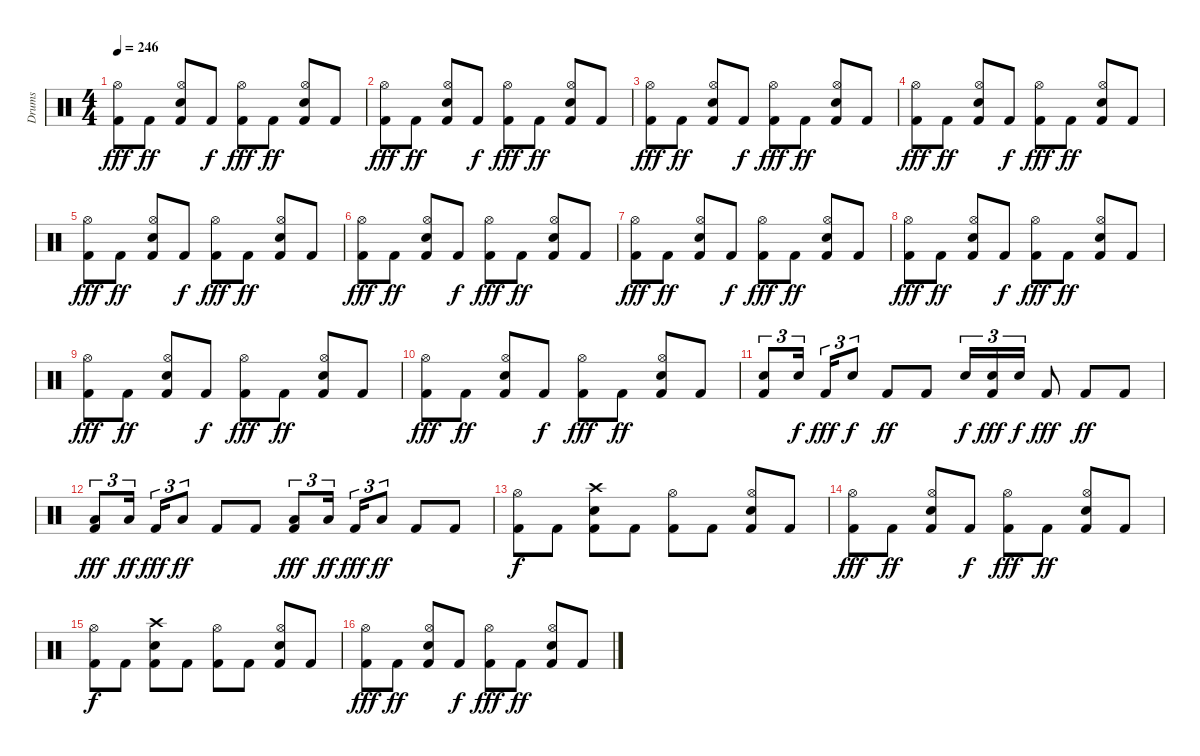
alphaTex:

\track ("Drums" "Drums") {instrument percussion}
\staff {score}
\articulation defaults
\ts (4 4)
\tempo 246
\clef neutral
\ks c
("Kick (hit) 2" "Hi-Hat (open)").8{dy fff volume 12} "Kick (hit) 2".8{dy ff} ("Kick (hit) 2" "Snare (hit) 2" "Hi-Hat (open)").8 "Kick (hit) 2".8{dy f} ("Kick (hit) 2" "Hi-Hat (open)").8{dy fff} "Kick (hit) 2".8{dy ff} ("Kick (hit) 2" "Snare (hit) 2" "Hi-Hat (open)").8 "Kick (hit) 2".8 |
("Kick (hit) 2" "Hi-Hat (open)").8{dy fff volume 12} "Kick (hit) 2".8{dy ff} ("Kick (hit) 2" "Snare (hit) 2" "Hi-Hat (open)").8 "Kick (hit) 2".8{dy f} ("Kick (hit) 2" "Hi-Hat (open)").8{dy fff} "Kick (hit) 2".8{dy ff} ("Kick (hit) 2" "Snare (hit) 2" "Hi-Hat (open)").8 "Kick (hit) 2".8 |
("Kick (hit) 2" "Hi-Hat (open)").8{dy fff volume 12} "Kick (hit) 2".8{dy ff} ("Kick (hit) 2" "Snare (hit) 2" "Hi-Hat (open)").8 "Kick (hit) 2".8{dy f} ("Kick (hit) 2" "Hi-Hat (open)").8{dy fff} "Kick (hit) 2".8{dy ff} ("Kick (hit) 2" "Snare (hit) 2" "Hi-Hat (open)").8 "Kick (hit) 2".8 |
("Kick (hit) 2" "Hi-Hat (open)").8{dy fff volume 12} "Kick (hit) 2".8{dy ff} ("Kick (hit) 2" "Snare (hit) 2" "Hi-Hat (open)").8 "Kick (hit) 2".8{dy f} ("Kick (hit) 2" "Hi-Hat (open)").8{dy fff} "Kick (hit) 2".8{dy ff} ("Kick (hit) 2" "Snare (hit) 2" "Hi-Hat (open)").8 "Kick (hit) 2".8 |
("Kick (hit) 2" "Hi-Hat (open)").8{dy fff volume 12} "Kick (hit) 2".8{dy ff} ("Kick (hit) 2" "Snare (hit) 2" "Hi-Hat (open)").8 "Kick (hit) 2".8{dy f} ("Kick (hit) 2" "Hi-Hat (open)").8{dy fff} "Kick (hit) 2".8{dy ff} ("Kick (hit) 2" "Snare (hit) 2" "Hi-Hat (open)").8 "Kick (hit) 2".8 |
("Kick (hit) 2" "Hi-Hat (open)").8{dy fff volume 12} "Kick (hit) 2".8{dy ff} ("Kick (hit) 2" "Snare (hit) 2" "Hi-Hat (open)").8 "Kick (hit) 2".8{dy f} ("Kick (hit) 2" "Hi-Hat (open)").8{dy fff} "Kick (hit) 2".8{dy ff} ("Kick (hit) 2" "Snare (hit) 2" "Hi-Hat (open)").8 "Kick (hit) 2".8 |
("Kick (hit) 2" "Hi-Hat (open)").8{dy fff volume 12} "Kick (hit) 2".8{dy ff} ("Kick (hit) 2" "Snare (hit) 2" "Hi-Hat (open)").8 "Kick (hit) 2".8{dy f} ("Kick (hit) 2" "Hi-Hat (open)").8{dy fff} "Kick (hit) 2".8{dy ff} ("Kick (hit) 2" "Snare (hit) 2" "Hi-Hat (open)").8 "Kick (hit) 2".8 |
("Kick (hit) 2" "Hi-Hat (open)").8{dy fff volume 12} "Kick (hit) 2".8{dy ff} ("Kick (hit) 2" "Snare (hit) 2" "Hi-Hat (open)").8 "Kick (hit) 2".8{dy f} ("Kick (hit) 2" "Hi-Hat (open)").8{dy fff} "Kick (hit) 2".8{dy ff} ("Kick (hit) 2" "Snare (hit) 2" "Hi-Hat (open)").8 "Kick (hit) 2".8 |
("Kick (hit) 2" "Hi-Hat (open)").8{dy fff volume 12} "Kick (hit) 2".8{dy ff} ("Kick (hit) 2" "Snare (hit) 2" "Hi-Hat (open)").8 "Kick (hit) 2".8{dy f} ("Kick (hit) 2" "Hi-Hat (open)").8{dy fff} "Kick (hit) 2".8{dy ff} ("Kick (hit) 2" "Snare (hit) 2" "Hi-Hat (open)").8 "Kick (hit) 2".8 |
("Kick (hit) 2" "Hi-Hat (open)").8{dy fff volume 12} "Kick (hit) 2".8{dy ff} ("Kick (hit) 2" "Snare (hit) 2" "Hi-Hat (open)").8 "Kick (hit) 2".8{dy f} ("Kick (hit) 2" "Hi-Hat (open)").8{dy fff} "Kick (hit) 2".8{dy ff} ("Kick (hit) 2" "Snare (hit) 2" "Hi-Hat (open)").8 "Kick (hit) 2".8 |
("Kick (hit) 2" "Snare (hit) 2").8{tu (3 2) volume 12} "Snare (hit) 2".16{tu (3 2) dy f} "Kick (hit) 2".16{tu (3 2) dy fff} "Snare (hit) 2".8{tu (3 2) dy f} "Kick (hit) 2".8{dy ff} "Kick (hit) 2".8 "Snare (hit) 2".16{tu (3 2) dy f} ("Kick (hit) 2" "Snare (hit) 2").16{tu (3 2) dy fff} "Snare (hit) 2".16{tu (3 2) dy f} "Kick (hit) 2".8{dy fff} "Kick (hit) 2".8{dy ff} "Kick (hit) 2".8 |
("Kick (hit) 2" "Low Tom (hit)").8{tu (3 2) dy fff volume 12} "Low Tom (hit)".16{tu (3 2) dy ff} "Kick (hit) 2".16{tu (3 2) dy fff} "Low Tom (hit)".8{tu (3 2) dy ff} "Kick (hit) 2".8 "Kick (hit) 2".8 ("Kick (hit) 2" "Low Floor Tom (hit)").8{tu (3 2) dy fff} "Low Floor Tom (hit)".16{tu (3 2) dy ff} "Kick (hit) 2".16{tu (3 2) dy fff} "Low Floor Tom (hit)".8{tu (3 2) dy ff} "Kick (hit) 2".8 "Kick (hit) 2".8 |
("Kick (hit) 2" "Hi-Hat (open)").8{dy f volume 12} "Kick (hit) 2".8 ("Kick (hit) 2" "Snare (hit) 2" "Crash high (hit)").8 "Kick (hit) 2".8 ("Kick (hit) 2" "Hi-Hat (open)").8 "Kick (hit) 2".8 ("Kick (hit) 2" "Snare (hit) 2" "Hi-Hat (open)").8 "Kick (hit) 2".8 |
("Kick (hit) 2" "Hi-Hat (open)").8{dy fff volume 12} "Kick (hit) 2".8{dy ff} ("Kick (hit) 2" "Snare (hit) 2" "Hi-Hat (open)").8 "Kick (hit) 2".8{dy f} ("Kick (hit) 2" "Hi-Hat (open)").8{dy fff} "Kick (hit) 2".8{dy ff} ("Kick (hit) 2" "Snare (hit) 2" "Hi-Hat (open)").8 "Kick (hit) 2".8 |
("Kick (hit) 2" "Hi-Hat (open)").8{dy f volume 12} "Kick (hit) 2".8 ("Kick (hit) 2" "Snare (hit) 2" "Crash high (hit)").8 "Kick (hit) 2".8 ("Kick (hit) 2" "Hi-Hat (open)").8 "Kick (hit) 2".8 ("Kick (hit) 2" "Snare (hit) 2" "Hi-Hat (open)").8 "Kick (hit) 2".8 |
("Kick (hit) 2" "Hi-Hat (open)").8{dy fff volume 12} "Kick (hit) 2".8{dy ff} ("Kick (hit) 2" "Snare (hit) 2" "Hi-Hat (open)").8 "Kick (hit) 2".8{dy f} ("Kick (hit) 2" "Hi-Hat (open)").8{dy fff} "Kick (hit) 2".8{dy ff} ("Kick (hit) 2" "Snare (hit) 2" "Hi-Hat (open)").8 "Kick (hit) 2".8
